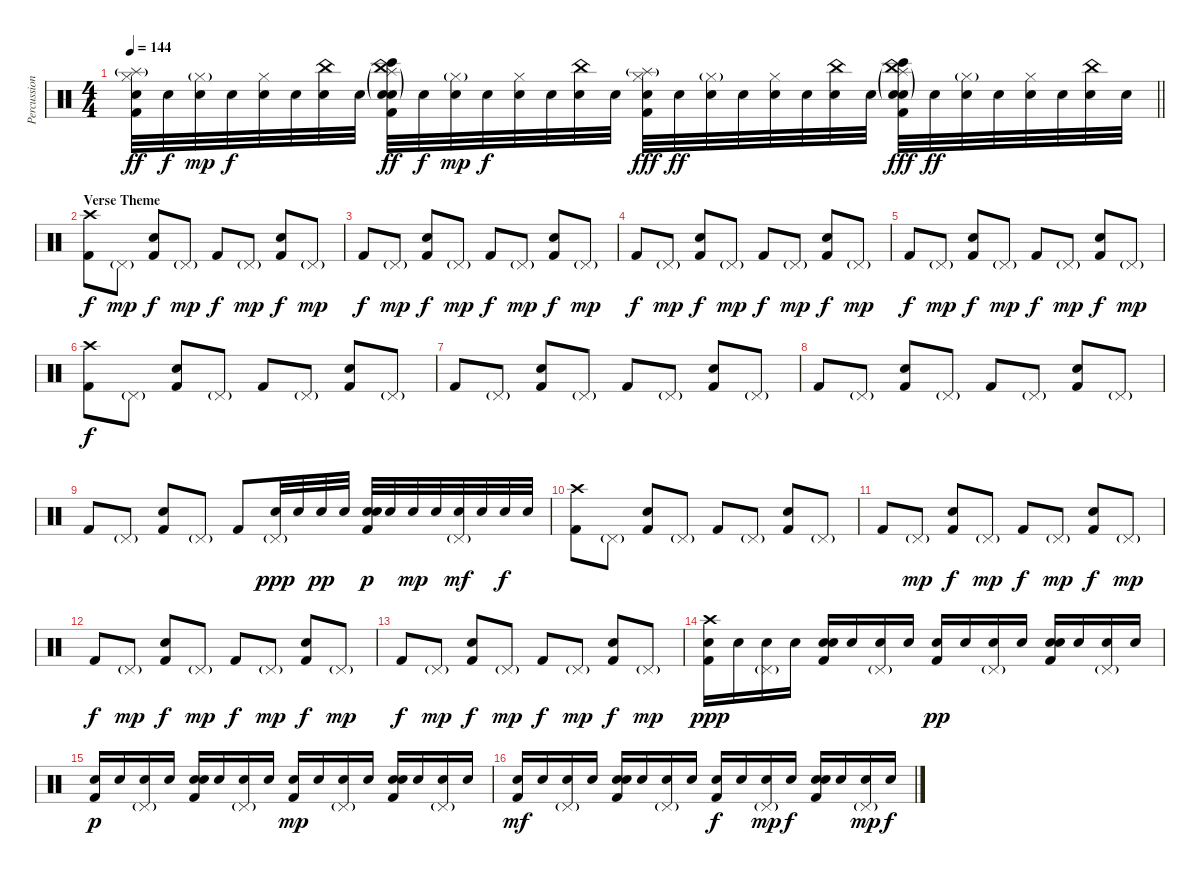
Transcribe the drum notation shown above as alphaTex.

\track ("Percussion" "Percussion") {instrument percussion}
\staff {score}
\articulation defaults
\ts (4 4)
\tempo 144
\clef neutral
\barLineRight lightlight
\ks c
("Hi-Hat (closed)" "Splash (hit)"{g} "Snare (hit) 2" "Kick (hit) 2").32{dy ff} "Snare (hit) 2".32{dy f} ("Hi-Hat (closed)"{g} "Snare (hit) 2").32{dy mp} "Snare (hit) 2".32{dy f} ("Hi-Hat (closed)" "Snare (hit) 2").32 "Snare (hit) 2".32 ("China (hit)" "Snare (hit) 2").32 "Snare (hit) 2".32 ("China (hit)" "Hand Clap (hit)"{g} "Splash (hit)"{g} "Bongo High (hit)" "Snare (hit) 2" "Kick (hit) 2").32{dy ff} "Snare (hit) 2".32{dy f} ("Hi-Hat (closed)"{g} "Snare (hit) 2").32{dy mp} "Snare (hit) 2".32{dy f} ("Hi-Hat (closed)" "Snare (hit) 2").32 "Snare (hit) 2".32 ("China (hit)" "Snare (hit) 2").32 "Snare (hit) 2".32 ("Hi-Hat (closed)" "Splash (hit)"{g} "Snare (hit) 2" "Kick (hit) 2").32{dy fff} "Snare (hit) 2".32{dy ff} ("Hi-Hat (closed)"{g} "Snare (hit) 2").32 "Snare (hit) 2".32 ("Hi-Hat (closed)" "Snare (hit) 2").32 "Snare (hit) 2".32 ("China (hit)" "Snare (hit) 2").32 "Snare (hit) 2".32 ("China (hit)" "Hand Clap (hit)"{g} "Splash (hit)"{g} "Bongo High (hit)" "Snare (hit) 2" "Kick (hit) 2").32{dy fff} "Snare (hit) 2".32{dy ff} ("Hi-Hat (closed)"{g} "Snare (hit) 2").32 "Snare (hit) 2".32 ("Hi-Hat (closed)" "Snare (hit) 2").32 "Snare (hit) 2".32 ("China (hit)" "Snare (hit) 2").32 "Snare (hit) 2".32 |
\section ("" "Verse Theme")
("Crash high (hit)" "Kick (hit) 2").8{dy f} "Pedal Hi-Hat (hit)"{g}.8{dy mp} ("Electric Snare (hit)" "Kick (hit) 2").8{dy f} "Pedal Hi-Hat (hit)"{g}.8{dy mp} "Kick (hit) 2".8{dy f} "Pedal Hi-Hat (hit)"{g}.8{dy mp} ("Electric Snare (hit)" "Kick (hit) 2").8{dy f} "Pedal Hi-Hat (hit)"{g}.8{dy mp} |
"Kick (hit) 2".8{dy f} "Pedal Hi-Hat (hit)"{g}.8{dy mp} ("Electric Snare (hit)" "Kick (hit) 2").8{dy f} "Pedal Hi-Hat (hit)"{g}.8{dy mp} "Kick (hit) 2".8{dy f} "Pedal Hi-Hat (hit)"{g}.8{dy mp} ("Electric Snare (hit)" "Kick (hit) 2").8{dy f} "Pedal Hi-Hat (hit)"{g}.8{dy mp} |
"Kick (hit) 2".8{dy f} "Pedal Hi-Hat (hit)"{g}.8{dy mp} ("Electric Snare (hit)" "Kick (hit) 2").8{dy f} "Pedal Hi-Hat (hit)"{g}.8{dy mp} "Kick (hit) 2".8{dy f} "Pedal Hi-Hat (hit)"{g}.8{dy mp} ("Electric Snare (hit)" "Kick (hit) 2").8{dy f} "Pedal Hi-Hat (hit)"{g}.8{dy mp} |
"Kick (hit) 2".8{dy f} "Pedal Hi-Hat (hit)"{g}.8{dy mp} ("Electric Snare (hit)" "Kick (hit) 2").8{dy f} "Pedal Hi-Hat (hit)"{g}.8{dy mp} "Kick (hit) 2".8{dy f} "Pedal Hi-Hat (hit)"{g}.8{dy mp} ("Electric Snare (hit)" "Kick (hit) 2").8{dy f} "Pedal Hi-Hat (hit)"{g}.8{dy mp} |
("Crash high (hit)" "Kick (hit) 2").8{dy f} "Pedal Hi-Hat (hit)"{g}.8 ("Electric Snare (hit)" "Kick (hit) 2").8 "Pedal Hi-Hat (hit)"{g}.8 "Kick (hit) 2".8 "Pedal Hi-Hat (hit)"{g}.8 ("Electric Snare (hit)" "Kick (hit) 2").8 "Pedal Hi-Hat (hit)"{g}.8 |
"Kick (hit) 2".8 "Pedal Hi-Hat (hit)"{g}.8 ("Electric Snare (hit)" "Kick (hit) 2").8 "Pedal Hi-Hat (hit)"{g}.8 "Kick (hit) 2".8 "Pedal Hi-Hat (hit)"{g}.8 ("Electric Snare (hit)" "Kick (hit) 2").8 "Pedal Hi-Hat (hit)"{g}.8 |
"Kick (hit) 2".8 "Pedal Hi-Hat (hit)"{g}.8 ("Electric Snare (hit)" "Kick (hit) 2").8 "Pedal Hi-Hat (hit)"{g}.8 "Kick (hit) 2".8 "Pedal Hi-Hat (hit)"{g}.8 ("Electric Snare (hit)" "Kick (hit) 2").8 "Pedal Hi-Hat (hit)"{g}.8 |
"Kick (hit) 2".8 "Pedal Hi-Hat (hit)"{g}.8 ("Electric Snare (hit)" "Kick (hit) 2").8 "Pedal Hi-Hat (hit)"{g}.8 "Kick (hit) 2".8 ("Pedal Hi-Hat (hit)"{g} "Snare (hit) 2").32{dy ppp} "Snare (hit) 2".32 "Snare (hit) 2".32{dy pp} "Snare (hit) 2".32 ("Electric Snare (hit)" "Snare (hit) 2" "Kick (hit) 2").32{dy p} "Snare (hit) 2".32 "Snare (hit) 2".32{dy mp} "Snare (hit) 2".32 ("Pedal Hi-Hat (hit)"{g} "Snare (hit) 2").32{dy mf} "Snare (hit) 2".32 "Snare (hit) 2".32{dy f} "Snare (hit) 2".32 |
("Crash high (hit)" "Kick (hit) 2").8 "Pedal Hi-Hat (hit)"{g}.8 ("Electric Snare (hit)" "Kick (hit) 2").8 "Pedal Hi-Hat (hit)"{g}.8 "Kick (hit) 2".8 "Pedal Hi-Hat (hit)"{g}.8 ("Electric Snare (hit)" "Kick (hit) 2").8 "Pedal Hi-Hat (hit)"{g}.8 |
"Kick (hit) 2".8 "Pedal Hi-Hat (hit)"{g}.8{dy mp} ("Electric Snare (hit)" "Kick (hit) 2").8{dy f} "Pedal Hi-Hat (hit)"{g}.8{dy mp} "Kick (hit) 2".8{dy f} "Pedal Hi-Hat (hit)"{g}.8{dy mp} ("Electric Snare (hit)" "Kick (hit) 2").8{dy f} "Pedal Hi-Hat (hit)"{g}.8{dy mp} |
"Kick (hit) 2".8{dy f} "Pedal Hi-Hat (hit)"{g}.8{dy mp} ("Electric Snare (hit)" "Kick (hit) 2").8{dy f} "Pedal Hi-Hat (hit)"{g}.8{dy mp} "Kick (hit) 2".8{dy f} "Pedal Hi-Hat (hit)"{g}.8{dy mp} ("Electric Snare (hit)" "Kick (hit) 2").8{dy f} "Pedal Hi-Hat (hit)"{g}.8{dy mp} |
"Kick (hit) 2".8{dy f} "Pedal Hi-Hat (hit)"{g}.8{dy mp} ("Electric Snare (hit)" "Kick (hit) 2").8{dy f} "Pedal Hi-Hat (hit)"{g}.8{dy mp} "Kick (hit) 2".8{dy f} "Pedal Hi-Hat (hit)"{g}.8{dy mp} ("Electric Snare (hit)" "Kick (hit) 2").8{dy f} "Pedal Hi-Hat (hit)"{g}.8{dy mp} |
("Crash high (hit)" "Snare (hit) 2" "Kick (hit) 2").16{dy ppp} "Snare (hit) 2".16 ("Pedal Hi-Hat (hit)"{g} "Snare (hit) 2").16 "Snare (hit) 2".16 ("Electric Snare (hit)" "Snare (hit) 2" "Kick (hit) 2").16 "Snare (hit) 2".16 ("Pedal Hi-Hat (hit)"{g} "Snare (hit) 2").16 "Snare (hit) 2".16 ("Snare (hit) 2" "Kick (hit) 2").16{dy pp} "Snare (hit) 2".16 ("Pedal Hi-Hat (hit)"{g} "Snare (hit) 2").16 "Snare (hit) 2".16 ("Electric Snare (hit)" "Snare (hit) 2" "Kick (hit) 2").16 "Snare (hit) 2".16 ("Pedal Hi-Hat (hit)"{g} "Snare (hit) 2").16 "Snare (hit) 2".16 |
("Snare (hit) 2" "Kick (hit) 2").16{dy p} "Snare (hit) 2".16 ("Pedal Hi-Hat (hit)"{g} "Snare (hit) 2").16 "Snare (hit) 2".16 ("Electric Snare (hit)" "Snare (hit) 2" "Kick (hit) 2").16 "Snare (hit) 2".16 ("Pedal Hi-Hat (hit)"{g} "Snare (hit) 2").16 "Snare (hit) 2".16 ("Snare (hit) 2" "Kick (hit) 2").16{dy mp} "Snare (hit) 2".16 ("Pedal Hi-Hat (hit)"{g} "Snare (hit) 2").16 "Snare (hit) 2".16 ("Electric Snare (hit)" "Snare (hit) 2" "Kick (hit) 2").16 "Snare (hit) 2".16 ("Pedal Hi-Hat (hit)"{g} "Snare (hit) 2").16 "Snare (hit) 2".16 |
("Snare (hit) 2" "Kick (hit) 2").16{dy mf} "Snare (hit) 2".16 ("Pedal Hi-Hat (hit)"{g} "Snare (hit) 2").16 "Snare (hit) 2".16 ("Electric Snare (hit)" "Snare (hit) 2" "Kick (hit) 2").16 "Snare (hit) 2".16 ("Pedal Hi-Hat (hit)"{g} "Snare (hit) 2").16 "Snare (hit) 2".16 ("Snare (hit) 2" "Kick (hit) 2").16{dy f} "Snare (hit) 2".16 ("Pedal Hi-Hat (hit)"{g} "Snare (hit) 2").16{dy mp} "Snare (hit) 2".16{dy f} ("Electric Snare (hit)" "Snare (hit) 2" "Kick (hit) 2").16 "Snare (hit) 2".16 ("Pedal Hi-Hat (hit)"{g} "Snare (hit) 2").16{dy mp} "Snare (hit) 2".16{dy f}
